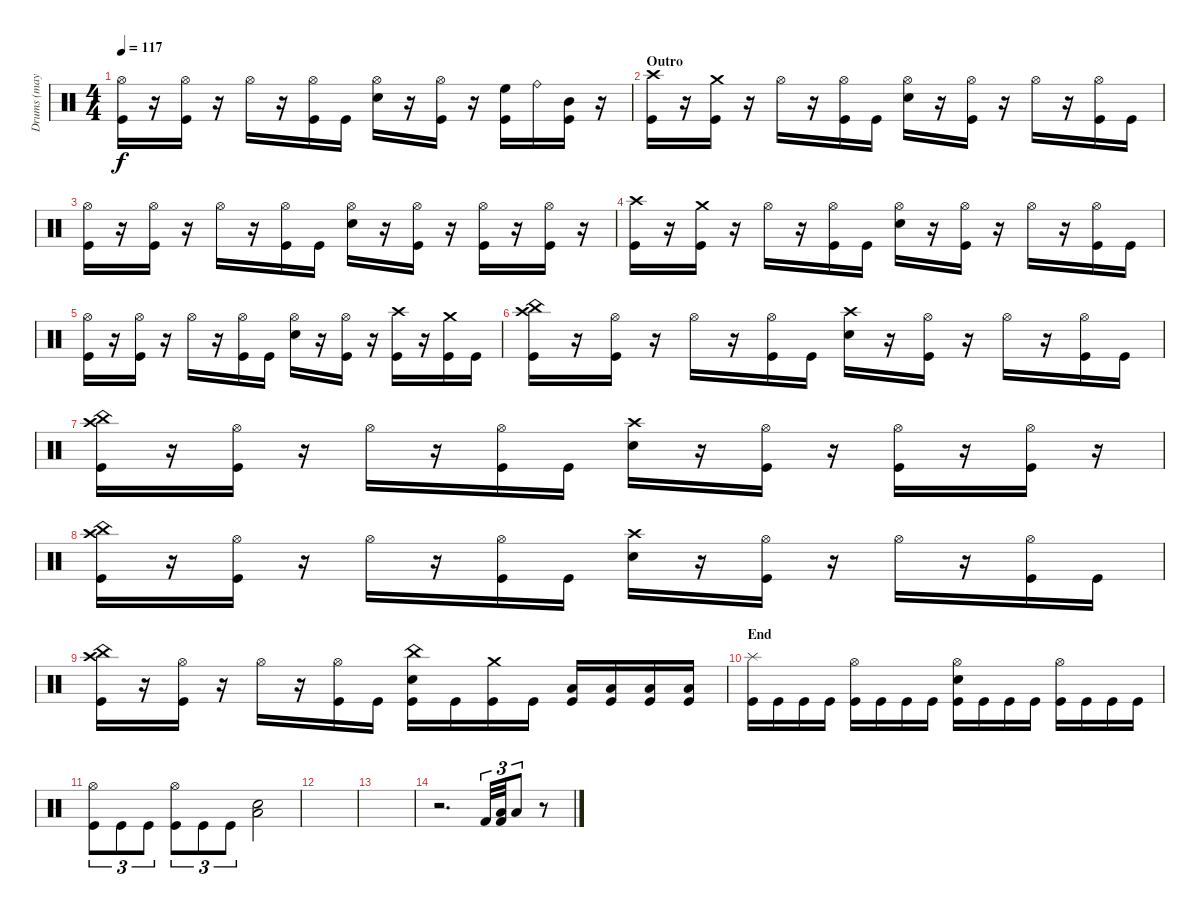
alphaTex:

\track ("Drums (maybe electrical, too)" "Drums (may") {instrument percussion}
\staff {score}
\articulation defaults
\ts (4 4)
\tempo 117
\clef neutral
\ks c
("Hi-Hat (open)" "Kick (hit)").16{dy f} r.16 ("Hi-Hat (open)" "Kick (hit)").16 r.16 "Hi-Hat (open)".16 r.16 ("Hi-Hat (open)" "Kick (hit)").16 "Kick (hit)".16 ("Hi-Hat (open)" "Electric Snare (hit)").16 r.16 ("Hi-Hat (open)" "Kick (hit)").16 r.16 ("High Floor Tom (hit)" "Kick (hit)").16 "Ride (bell)".16 ("Mid Tom (hit)" "Kick (hit)").16 r.16 |
\section ("" "Outro")
("Crash high (hit)" "Kick (hit)").16 r.16 ("Crash medium (hit)" "Kick (hit)").16 r.16 "Hi-Hat (open)".16 r.16 ("Hi-Hat (open)" "Kick (hit)").16 "Kick (hit)".16 ("Hi-Hat (open)" "Electric Snare (hit)").16 r.16 ("Hi-Hat (open)" "Kick (hit)").16 r.16 "Hi-Hat (open)".16 r.16 ("Hi-Hat (open)" "Kick (hit)").16 "Kick (hit)".16 |
("Hi-Hat (open)" "Kick (hit)").16 r.16 ("Hi-Hat (open)" "Kick (hit)").16 r.16 "Hi-Hat (open)".16 r.16 ("Hi-Hat (open)" "Kick (hit)").16 "Kick (hit)".16 ("Hi-Hat (open)" "Electric Snare (hit)").16 r.16 ("Hi-Hat (open)" "Kick (hit)").16 r.16 ("Hi-Hat (open)" "Kick (hit)").16 r.16 ("Hi-Hat (open)" "Kick (hit)").16 r.16 |
("Crash high (hit)" "Kick (hit)").16 r.16 ("Crash medium (hit)" "Kick (hit)").16 r.16 "Hi-Hat (open)".16 r.16 ("Hi-Hat (open)" "Kick (hit)").16 "Kick (hit)".16 ("Hi-Hat (open)" "Electric Snare (hit)").16 r.16 ("Hi-Hat (open)" "Kick (hit)").16 r.16 "Hi-Hat (open)".16 r.16 ("Hi-Hat (open)" "Kick (hit)").16 "Kick (hit)".16 |
("Hi-Hat (open)" "Kick (hit)").16 r.16 ("Hi-Hat (open)" "Kick (hit)").16 r.16 "Hi-Hat (open)".16 r.16 ("Hi-Hat (open)" "Kick (hit)").16 "Kick (hit)".16 ("Hi-Hat (open)" "Electric Snare (hit)").16 r.16 ("Hi-Hat (open)" "Kick (hit)").16 r.16 ("Crash high (hit)" "Kick (hit)").16 r.16 ("Crash medium (hit)" "Kick (hit)").16 "Kick (hit)".16 |
("Crash high (hit)" "China (hit)" "Kick (hit)").16 r.16 ("Hi-Hat (open)" "Kick (hit)").16 r.16 "Hi-Hat (open)".16 r.16 ("Hi-Hat (open)" "Kick (hit)").16 "Kick (hit)".16 ("Crash high (hit)" "Electric Snare (hit)").16 r.16 ("Hi-Hat (open)" "Kick (hit)").16 r.16 "Hi-Hat (open)".16 r.16 ("Hi-Hat (open)" "Kick (hit)").16 "Kick (hit)".16 |
("Crash high (hit)" "China (hit)" "Kick (hit)").16 r.16 ("Hi-Hat (open)" "Kick (hit)").16 r.16 "Hi-Hat (open)".16 r.16 ("Hi-Hat (open)" "Kick (hit)").16 "Kick (hit)".16 ("Crash high (hit)" "Electric Snare (hit)").16 r.16 ("Hi-Hat (open)" "Kick (hit)").16 r.16 ("Hi-Hat (open)" "Kick (hit)").16 r.16 ("Hi-Hat (open)" "Kick (hit)").16 r.16 |
("Crash high (hit)" "China (hit)" "Kick (hit)").16 r.16 ("Hi-Hat (open)" "Kick (hit)").16 r.16 "Hi-Hat (open)".16 r.16 ("Hi-Hat (open)" "Kick (hit)").16 "Kick (hit)".16 ("Crash high (hit)" "Electric Snare (hit)").16 r.16 ("Hi-Hat (open)" "Kick (hit)").16 r.16 "Hi-Hat (open)".16 r.16 ("Hi-Hat (open)" "Kick (hit)").16 "Kick (hit)".16 |
("Crash high (hit)" "China (hit)" "Kick (hit)").16 r.16 ("Hi-Hat (open)" "Kick (hit)").16 r.16 "Hi-Hat (open)".16 r.16 ("Hi-Hat (open)" "Kick (hit)").16 "Kick (hit)".16 ("China (hit)" "Electric Snare (hit)" "Kick (hit)").16 "Kick (hit)".16 ("Crash medium (hit)" "Kick (hit)").16 "Kick (hit)".16 ("Low Tom (hit)" "Kick (hit)").16 ("Low Tom (hit)" "Kick (hit)").16 ("Low Floor Tom (hit)" "Kick (hit)").16 ("Low Floor Tom (hit)" "Kick (hit)").16 |
\section ("" "End")
("Splash (hit)" "Kick (hit)").16 "Kick (hit)".16 "Kick (hit)".16 "Kick (hit)".16 ("Hi-Hat (open)" "Kick (hit)").16 "Kick (hit)".16 "Kick (hit)".16 "Kick (hit)".16 ("Hi-Hat (open)" "Electric Snare (hit)" "Kick (hit)").16 "Kick (hit)".16 "Kick (hit)".16 "Kick (hit)".16 ("Hi-Hat (open)" "Kick (hit)").16 "Kick (hit)".16 "Kick (hit)".16 "Kick (hit)".16 |
("Hi-Hat (open)" "Kick (hit)").8{tu (3 2)} "Kick (hit)".8{tu (3 2)} "Kick (hit)".8{tu (3 2)} ("Hi-Hat (open)" "Kick (hit)").8{tu (3 2)} "Kick (hit)".8{tu (3 2)} "Kick (hit)".8{tu (3 2)} ("Electric Snare (hit)" "Low Floor Tom (hit)").2 |
|
|
r.2{d} "Kick (hit) 2".32{tu (3 2)} ("Low Tom (hit)" "Kick (hit) 2").32{tu (3 2)} "Low Floor Tom (hit)".8{tu (3 2)} r.8
